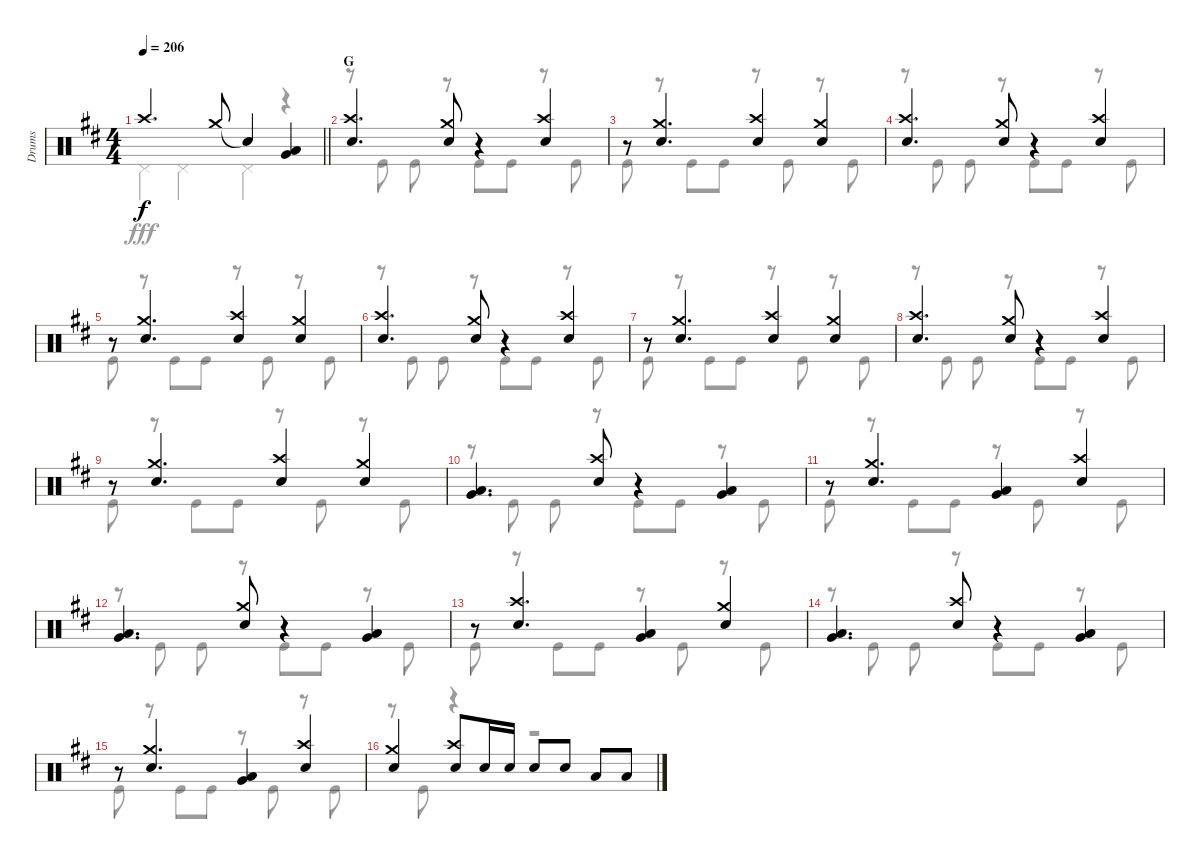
\track ("Drums" "Drums") {instrument percussion}
\staff {score}
\articulation defaults
\voice
\ts (4 4)
\tempo 206
\clef neutral
\barLineRight lightlight
\ks d "Crash high (hit)".4{d dy f} "Crash medium (hit)".8 "Snare (hit)"{t}.4
("Low Tom (hit)" "Very Low Tom (hit)").4 |
\section ("" "G")
("Crash high (hit)" "Snare (hit) 2").4{d} ("Crash medium (hit)" "Snare (hit) 2").8 r.4 ("Crash high (hit)" "Snare (hit) 2").4 |
r.8 ("Crash medium (hit)" "Snare (hit) 2").4{d} ("Crash high (hit)" "Snare (hit) 2").4 ("Crash medium (hit)" "Snare (hit) 2").4 |
("Crash high (hit)" "Snare (hit) 2").4{d} ("Crash medium (hit)" "Snare (hit) 2").8 r.4 ("Crash high (hit)" "Snare (hit) 2").4 |
r.8 ("Crash medium (hit)" "Snare (hit) 2").4{d} ("Crash high (hit)" "Snare (hit) 2").4 ("Crash medium (hit)" "Snare (hit) 2").4 |
("Crash high (hit)" "Snare (hit) 2").4{d} ("Crash medium (hit)" "Snare (hit) 2").8 r.4 ("Crash high (hit)" "Snare (hit) 2").4 |
r.8 ("Crash medium (hit)" "Snare (hit) 2").4{d} ("Crash high (hit)" "Snare (hit) 2").4 ("Crash medium (hit)" "Snare (hit) 2").4 |
("Crash high (hit)" "Snare (hit) 2").4{d} ("Crash medium (hit)" "Snare (hit) 2").8 r.4 ("Crash high (hit)" "Snare (hit) 2").4 |
r.8 ("Crash medium (hit)" "Snare (hit) 2").4{d} ("Crash high (hit)" "Snare (hit) 2").4 ("Crash medium (hit)" "Snare (hit) 2").4 |
("Low Tom (hit)" "Very Low Tom (hit)").4{d} ("Crash high (hit)" "Snare (hit) 2").8 r.4 ("Low Tom (hit)" "Very Low Tom (hit)").4 |
r.8 ("Crash medium (hit)" "Snare (hit) 2").4{d} ("Low Tom (hit)" "Very Low Tom (hit)").4 ("Crash high (hit)" "Snare (hit) 2").4 |
("Low Tom (hit)" "Very Low Tom (hit)").4{d} ("Crash medium (hit)" "Snare (hit) 2").8 r.4 ("Low Tom (hit)" "Very Low Tom (hit)").4 |
r.8 ("Crash high (hit)" "Snare (hit) 2").4{d} ("Low Tom (hit)" "Very Low Tom (hit)").4 ("Crash medium (hit)" "Snare (hit) 2").4 |
("Low Tom (hit)" "Very Low Tom (hit)").4{d} ("Crash high (hit)" "Snare (hit) 2").8 r.4 ("Low Tom (hit)" "Very Low Tom (hit)").4 |
r.8 ("Crash medium (hit)" "Snare (hit) 2").4{d} ("Low Tom (hit)" "Very Low Tom (hit)").4 ("Crash high (hit)" "Snare (hit) 2").4 |
("Crash medium (hit)" "Snare (hit) 2").4 ("Crash high (hit)" "Snare (hit) 2").8 "Snare (hit) 2".16 "Snare (hit) 2".16 "Snare (hit) 2".8 "Snare (hit) 2".8 "Low Tom (hit)".8 "Low Tom (hit)".8
\voice
\clef neutral
\ottava regular
\simile none
\barLineRight lightlight
\ks d "Pedal Hi-Hat (hit)".4{dy fff} "Pedal Hi-Hat (hit)".4 "Pedal Hi-Hat (hit)".4
r.4 |
r.8 "Kick (hit)".8 "Kick (hit)".8 r.8 "Kick (hit)".8 "Kick (hit)".8 r.8 "Kick (hit)".8 |
"Kick (hit)".8 r.8 "Kick (hit)".8 "Kick (hit)".8 r.8 "Kick (hit)".8 r.8 "Kick (hit)".8 |
r.8 "Kick (hit)".8 "Kick (hit)".8 r.8 "Kick (hit)".8 "Kick (hit)".8 r.8 "Kick (hit)".8 |
"Kick (hit)".8 r.8 "Kick (hit)".8 "Kick (hit)".8 r.8 "Kick (hit)".8 r.8 "Kick (hit)".8 |
r.8 "Kick (hit)".8 "Kick (hit)".8 r.8 "Kick (hit)".8 "Kick (hit)".8 r.8 "Kick (hit)".8 |
"Kick (hit)".8 r.8 "Kick (hit)".8 "Kick (hit)".8 r.8 "Kick (hit)".8 r.8 "Kick (hit)".8 |
r.8 "Kick (hit)".8 "Kick (hit)".8 r.8 "Kick (hit)".8 "Kick (hit)".8 r.8 "Kick (hit)".8 |
"Kick (hit)".8 r.8 "Kick (hit)".8 "Kick (hit)".8 r.8 "Kick (hit)".8 r.8 "Kick (hit)".8 |
r.8 "Kick (hit)".8 "Kick (hit)".8 r.8 "Kick (hit)".8 "Kick (hit)".8 r.8 "Kick (hit)".8 |
"Kick (hit)".8 r.8 "Kick (hit)".8 "Kick (hit)".8 r.8 "Kick (hit)".8 r.8 "Kick (hit)".8 |
r.8 "Kick (hit)".8 "Kick (hit)".8 r.8 "Kick (hit)".8 "Kick (hit)".8 r.8 "Kick (hit)".8 |
"Kick (hit)".8 r.8 "Kick (hit)".8 "Kick (hit)".8 r.8 "Kick (hit)".8 r.8 "Kick (hit)".8 |
r.8 "Kick (hit)".8 "Kick (hit)".8 r.8 "Kick (hit)".8 "Kick (hit)".8 r.8 "Kick (hit)".8 |
"Kick (hit)".8 r.8 "Kick (hit)".8 "Kick (hit)".8 r.8 "Kick (hit)".8 r.8 "Kick (hit)".8 |
r.8 "Kick (hit)".8 r.4 r.2
